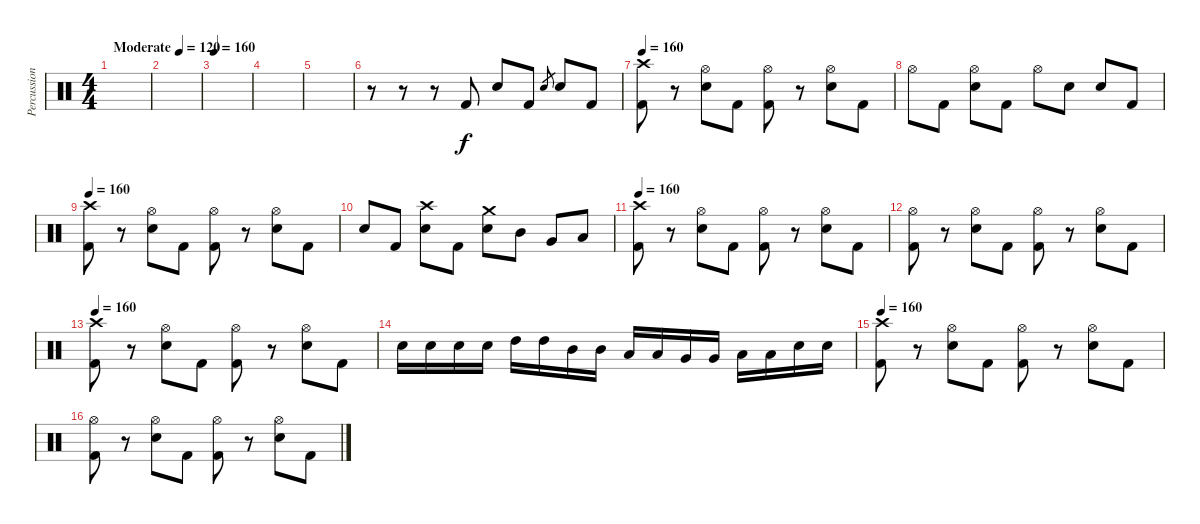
\track ("Percussion" "Percussion") {instrument percussion}
\staff {score}
\articulation defaults
\ts (4 4)
\tempo (120 "Moderate")
\tempo 160
\tempo (120 "Moderate")
\clef neutral
\ks c
|
|
\tempo 160
|
|
|
r.8 r.8 r.8 "Kick (hit) 2".8 "Snare (hit) 2".8 "Kick (hit) 2".8 "Snare (hit) 2".8{gr} "Snare (hit) 2".8 "Kick (hit) 2".8 |
\tempo 160
("Crash high (hit)" "Kick (hit) 2").8 r.8 ("Hi-Hat (open)" "Snare (hit) 2").8 "Kick (hit) 2".8 ("Hi-Hat (open)" "Kick (hit) 2").8 r.8 ("Hi-Hat (open)" "Snare (hit) 2").8 "Kick (hit) 2".8 |
"Hi-Hat (open)".8 "Kick (hit) 2".8 ("Hi-Hat (open)" "Snare (hit) 2").8 "Kick (hit) 2".8 "Hi-Hat (open)".8 "Snare (hit) 2".8 "Snare (hit) 2".8 "Kick (hit) 2".8 |
\tempo 160
("Crash high (hit)" "Kick (hit) 2").8 r.8 ("Hi-Hat (open)" "Snare (hit) 2").8 "Kick (hit) 2".8 ("Hi-Hat (open)" "Kick (hit) 2").8 r.8 ("Hi-Hat (open)" "Snare (hit) 2").8 "Kick (hit) 2".8 |
"Snare (hit) 2".8 "Kick (hit) 2".8 ("Crash high (hit)" "Snare (hit) 2").8 "Kick (hit) 2".8 ("Crash medium (hit)" "Snare (hit) 2").8 "Mid Tom (hit)".8 "Very Low Tom (hit)".8 "Low Floor Tom (hit)".8 |
\tempo 160
("Crash high (hit)" "Kick (hit) 2").8 r.8 ("Hi-Hat (open)" "Snare (hit) 2").8 "Kick (hit) 2".8 ("Hi-Hat (open)" "Kick (hit) 2").8 r.8 ("Hi-Hat (open)" "Snare (hit) 2").8 "Kick (hit) 2".8 |
("Hi-Hat (open)" "Kick (hit) 2").8 r.8 ("Hi-Hat (open)" "Snare (hit) 2").8 "Kick (hit) 2".8 ("Hi-Hat (open)" "Kick (hit) 2").8 r.8 ("Hi-Hat (open)" "Snare (hit) 2").8 "Kick (hit) 2".8 |
\tempo 160
("Crash high (hit)" "Kick (hit) 2").8 r.8 ("Hi-Hat (open)" "Snare (hit) 2").8 "Kick (hit) 2".8 ("Hi-Hat (open)" "Kick (hit) 2").8 r.8 ("Hi-Hat (open)" "Snare (hit) 2").8 "Kick (hit) 2".8 |
"Snare (hit) 2".16 "Snare (hit) 2".16 "Snare (hit) 2".16 "Snare (hit) 2".16 "High Tom (hit)".16 "High Tom (hit)".16 "Mid Tom (hit)".16 "Mid Tom (hit)".16 "Low Tom (hit)".16 "Low Tom (hit)".16 "Very Low Tom (hit)".16 "Very Low Tom (hit)".16 "Low Floor Tom (hit)".16 "Low Floor Tom (hit)".16 "Snare (hit) 2".16 "Snare (hit) 2".16 |
\tempo 160
("Crash high (hit)" "Kick (hit) 2").8 r.8 ("Hi-Hat (open)" "Snare (hit) 2").8 "Kick (hit) 2".8 ("Hi-Hat (open)" "Kick (hit) 2").8 r.8 ("Hi-Hat (open)" "Snare (hit) 2").8 "Kick (hit) 2".8 |
("Hi-Hat (open)" "Kick (hit) 2").8 r.8 ("Hi-Hat (open)" "Snare (hit) 2").8 "Kick (hit) 2".8 ("Hi-Hat (open)" "Kick (hit) 2").8 r.8 ("Hi-Hat (open)" "Snare (hit) 2").8 "Kick (hit) 2".8
